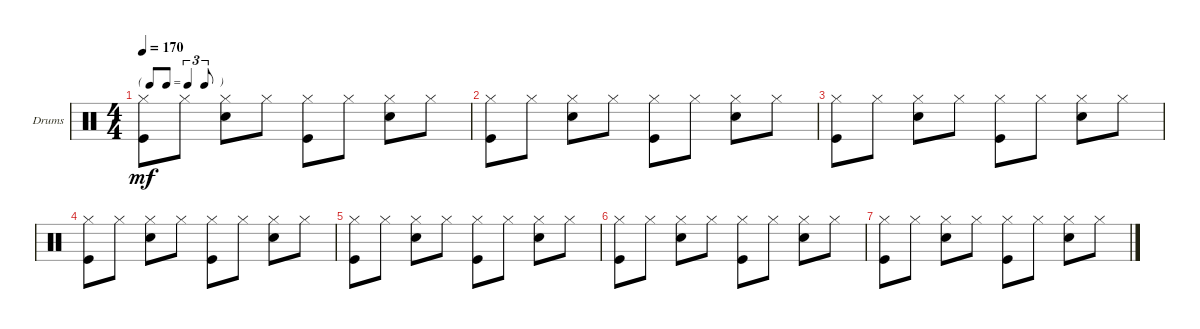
\defaultSystemsLayout 4
\bracketExtendMode groupsimilarinstruments
\firstSystemTrackNameOrientation horizontal
\otherSystemsTrackNameOrientation horizontal
\track ("Drumkit" "Drums") {instrument percussion}
\staff {score}
\articulation defaults
\ts (4 4)
\tf triplet8th
\tempo 170
\clef neutral
\ks c
("Hi-Hat (closed)" "Kick (hit)").8{dy mf} "Hi-Hat (closed)".8 ("Hi-Hat (closed)" "Snare (hit) 2").8 "Hi-Hat (closed)".8 ("Hi-Hat (closed)" "Kick (hit)").8 "Hi-Hat (closed)".8 ("Hi-Hat (closed)" "Snare (hit) 2").8 "Hi-Hat (closed)".8 |
("Hi-Hat (closed)" "Kick (hit)").8 "Hi-Hat (closed)".8 ("Hi-Hat (closed)" "Snare (hit) 2").8 "Hi-Hat (closed)".8 ("Hi-Hat (closed)" "Kick (hit)").8 "Hi-Hat (closed)".8 ("Hi-Hat (closed)" "Snare (hit) 2").8 "Hi-Hat (closed)".8 |
("Hi-Hat (closed)" "Kick (hit)").8 "Hi-Hat (closed)".8 ("Hi-Hat (closed)" "Snare (hit) 2").8 "Hi-Hat (closed)".8 ("Hi-Hat (closed)" "Kick (hit)").8 "Hi-Hat (closed)".8 ("Hi-Hat (closed)" "Snare (hit) 2").8 "Hi-Hat (closed)".8 |
("Hi-Hat (closed)" "Kick (hit)").8 "Hi-Hat (closed)".8 ("Hi-Hat (closed)" "Snare (hit) 2").8 "Hi-Hat (closed)".8 ("Hi-Hat (closed)" "Kick (hit)").8 "Hi-Hat (closed)".8 ("Hi-Hat (closed)" "Snare (hit) 2").8 "Hi-Hat (closed)".8 |
("Hi-Hat (closed)" "Kick (hit)").8 "Hi-Hat (closed)".8 ("Hi-Hat (closed)" "Snare (hit) 2").8 "Hi-Hat (closed)".8 ("Hi-Hat (closed)" "Kick (hit)").8 "Hi-Hat (closed)".8 ("Hi-Hat (closed)" "Snare (hit) 2").8 "Hi-Hat (closed)".8 |
("Hi-Hat (closed)" "Kick (hit)").8 "Hi-Hat (closed)".8 ("Hi-Hat (closed)" "Snare (hit) 2").8 "Hi-Hat (closed)".8 ("Hi-Hat (closed)" "Kick (hit)").8 "Hi-Hat (closed)".8 ("Hi-Hat (closed)" "Snare (hit) 2").8 "Hi-Hat (closed)".8 |
("Hi-Hat (closed)" "Kick (hit)").8 "Hi-Hat (closed)".8 ("Hi-Hat (closed)" "Snare (hit) 2").8 "Hi-Hat (closed)".8 ("Hi-Hat (closed)" "Kick (hit)").8 "Hi-Hat (closed)".8 ("Hi-Hat (closed)" "Snare (hit) 2").8 "Hi-Hat (closed)".8
